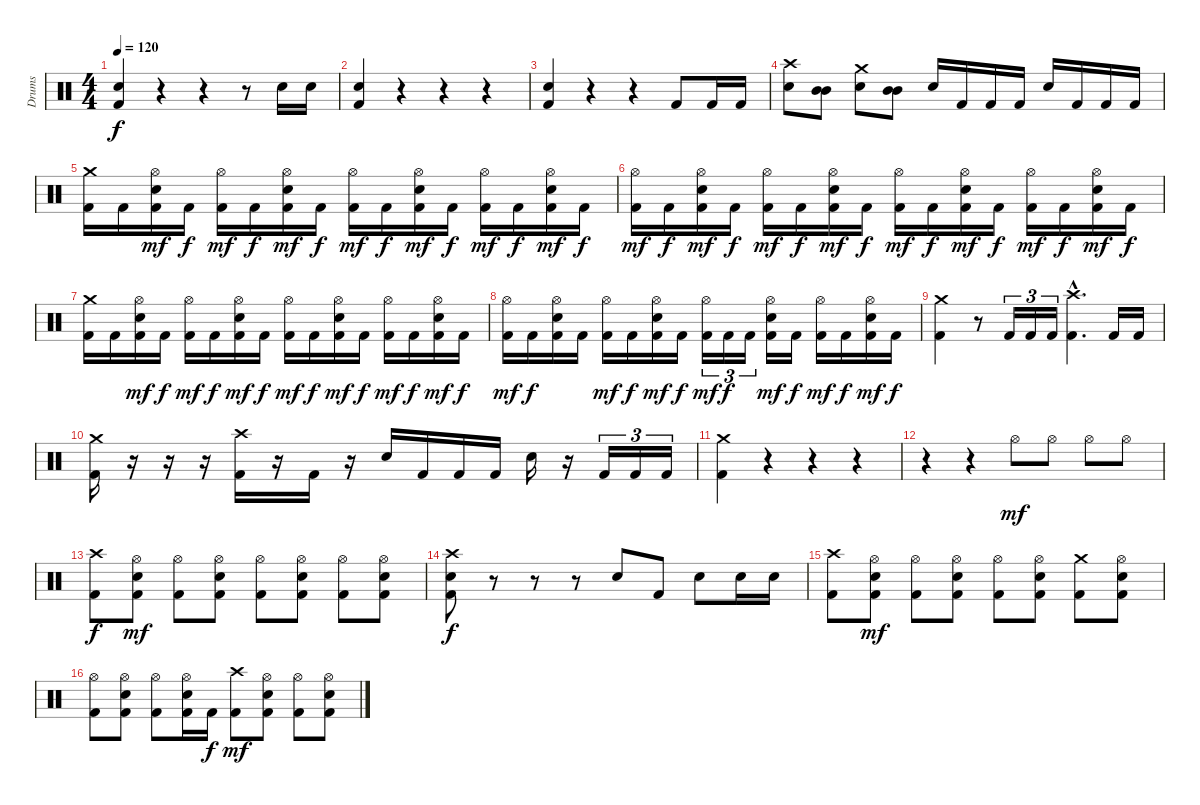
\track ("Drums" "Drums") {instrument percussion}
\staff {score}
\articulation defaults
\ts (4 4)
\tempo 120
\clef neutral
\ks c
("Snare (hit) 2" "Kick (hit) 2").4{dy f} r.4 r.4 r.8 "Snare (hit) 2".16 "Snare (hit) 2".16 |
("Snare (hit) 2" "Kick (hit) 2").4 r.4 r.4 r.4 |
("Snare (hit) 2" "Kick (hit) 2").4 r.4 r.4 "Kick (hit) 2".8 "Kick (hit) 2".16 "Kick (hit) 2".16 |
("Crash high (hit)" "Snare (hit) 2").8 ("Mid Tom (hit)" "Mid Tom (hit)").8 ("Crash medium (hit)" "Snare (hit) 2").8 ("Mid Tom (hit)" "Mid Tom (hit)").8 "Snare (hit) 2".16 "Kick (hit) 2".16 "Kick (hit) 2".16 "Kick (hit) 2".16 "Snare (hit) 2".16 "Kick (hit) 2".16 "Kick (hit) 2".16 "Kick (hit) 2".16 |
("Crash medium (hit)" "Kick (hit) 2").16 "Kick (hit) 2".16 ("Hi-Hat (open)" "Snare (hit) 2" "Kick (hit) 2").16{dy mf} "Kick (hit) 2".16{dy f} ("Hi-Hat (open)" "Kick (hit) 2").16{dy mf} "Kick (hit) 2".16{dy f} ("Hi-Hat (open)" "Snare (hit) 2" "Kick (hit) 2").16{dy mf} "Kick (hit) 2".16{dy f} ("Hi-Hat (open)" "Kick (hit) 2").16{dy mf} "Kick (hit) 2".16{dy f} ("Hi-Hat (open)" "Snare (hit) 2" "Kick (hit) 2").16{dy mf} "Kick (hit) 2".16{dy f} ("Hi-Hat (open)" "Kick (hit) 2").16{dy mf} "Kick (hit) 2".16{dy f} ("Hi-Hat (open)" "Snare (hit) 2" "Kick (hit) 2").16{dy mf} "Kick (hit) 2".16{dy f} |
("Hi-Hat (open)" "Kick (hit) 2").16{dy mf} "Kick (hit) 2".16{dy f} ("Hi-Hat (open)" "Snare (hit) 2" "Kick (hit) 2").16{dy mf} "Kick (hit) 2".16{dy f} ("Hi-Hat (open)" "Kick (hit) 2").16{dy mf} "Kick (hit) 2".16{dy f} ("Hi-Hat (open)" "Snare (hit) 2" "Kick (hit) 2").16{dy mf} "Kick (hit) 2".16{dy f} ("Hi-Hat (open)" "Kick (hit) 2").16{dy mf} "Kick (hit) 2".16{dy f} ("Hi-Hat (open)" "Snare (hit) 2" "Kick (hit) 2").16{dy mf} "Kick (hit) 2".16{dy f} ("Hi-Hat (open)" "Kick (hit) 2").16{dy mf} "Kick (hit) 2".16{dy f} ("Hi-Hat (open)" "Snare (hit) 2" "Kick (hit) 2").16{dy mf} "Kick (hit) 2".16{dy f} |
("Crash medium (hit)" "Kick (hit) 2").16 "Kick (hit) 2".16 ("Hi-Hat (open)" "Snare (hit) 2" "Kick (hit) 2").16{dy mf} "Kick (hit) 2".16{dy f} ("Hi-Hat (open)" "Kick (hit) 2").16{dy mf} "Kick (hit) 2".16{dy f} ("Hi-Hat (open)" "Snare (hit) 2" "Kick (hit) 2").16{dy mf} "Kick (hit) 2".16{dy f} ("Hi-Hat (open)" "Kick (hit) 2").16{dy mf} "Kick (hit) 2".16{dy f} ("Hi-Hat (open)" "Snare (hit) 2" "Kick (hit) 2").16{dy mf} "Kick (hit) 2".16{dy f} ("Hi-Hat (open)" "Kick (hit) 2").16{dy mf} "Kick (hit) 2".16{dy f} ("Hi-Hat (open)" "Snare (hit) 2" "Kick (hit) 2").16{dy mf} "Kick (hit) 2".16{dy f} |
("Hi-Hat (open)" "Kick (hit) 2").16{dy mf} "Kick (hit) 2".16{dy f} ("Hi-Hat (open)" "Snare (hit) 2" "Kick (hit) 2").16 "Kick (hit) 2".16 ("Hi-Hat (open)" "Kick (hit) 2").16{dy mf} "Kick (hit) 2".16{dy f} ("Hi-Hat (open)" "Snare (hit) 2" "Kick (hit) 2").16{dy mf} "Kick (hit) 2".16{dy f} ("Hi-Hat (open)" "Kick (hit) 2").16{tu (3 2) dy mf} "Kick (hit) 2".16{tu (3 2) dy f} "Kick (hit) 2".16{tu (3 2)} ("Hi-Hat (open)" "Snare (hit) 2" "Kick (hit) 2").16{dy mf} "Kick (hit) 2".16{dy f} ("Hi-Hat (open)" "Kick (hit) 2").16{dy mf} "Kick (hit) 2".16{dy f} ("Hi-Hat (open)" "Snare (hit) 2" "Kick (hit) 2").16{dy mf} "Kick (hit) 2".16{dy f} |
("Crash medium (hit)" "Kick (hit) 2").4 r.8 "Kick (hit) 2".16{tu (3 2)} "Kick (hit) 2".16{tu (3 2)} "Kick (hit) 2".16{tu (3 2)} ("Crash high (hit)"{hac} "Kick (hit) 2"{hac}).4{d} "Kick (hit) 2".16 "Kick (hit) 2".16 |
("Crash medium (hit)" "Kick (hit) 2").16 r.16 r.16 r.16 ("Crash high (hit)" "Kick (hit) 2").16 r.16 "Kick (hit) 2".16 r.16 "Snare (hit) 2".16 "Kick (hit) 2".16 "Kick (hit) 2".16 "Kick (hit) 2".16 "Snare (hit) 2".16 r.16 "Kick (hit) 2".16{tu (3 2)} "Kick (hit) 2".16{tu (3 2)} "Kick (hit) 2".16{tu (3 2)} |
("Crash medium (hit)" "Kick (hit) 2").4 r.4 r.4 r.4 |
r.4 r.4 "Hi-Hat (open)".8{dy mf} "Hi-Hat (open)".8 "Hi-Hat (open)".8 "Hi-Hat (open)".8 |
("Crash high (hit)" "Kick (hit) 2").8{dy f} ("Hi-Hat (open)" "Snare (hit) 2" "Kick (hit) 2").8{dy mf} ("Hi-Hat (open)" "Kick (hit) 2").8 ("Hi-Hat (open)" "Snare (hit) 2" "Kick (hit) 2").8 ("Hi-Hat (open)" "Kick (hit) 2").8 ("Hi-Hat (open)" "Snare (hit) 2" "Kick (hit) 2").8 ("Hi-Hat (open)" "Kick (hit) 2").8 ("Hi-Hat (open)" "Snare (hit) 2" "Kick (hit) 2").8 |
("Crash high (hit)" "Snare (hit) 2" "Kick (hit) 2").8{dy f} r.8 r.8 r.8 "Snare (hit) 2".8 "Kick (hit) 2".8 "Snare (hit) 2".8 "Snare (hit) 2".16 "Snare (hit) 2".16 |
("Crash high (hit)" "Kick (hit) 2").8 ("Hi-Hat (open)" "Snare (hit) 2" "Kick (hit) 2").8{dy mf} ("Hi-Hat (open)" "Kick (hit) 2").8 ("Hi-Hat (open)" "Snare (hit) 2" "Kick (hit) 2").8 ("Hi-Hat (open)" "Kick (hit) 2").8 ("Hi-Hat (open)" "Snare (hit) 2" "Kick (hit) 2").8 ("Crash medium (hit)" "Kick (hit) 2").8 ("Hi-Hat (open)" "Snare (hit) 2" "Kick (hit) 2").8 |
("Hi-Hat (open)" "Kick (hit) 2").8 ("Hi-Hat (open)" "Snare (hit) 2" "Kick (hit) 2").8 ("Hi-Hat (open)" "Kick (hit) 2").8 ("Hi-Hat (open)" "Snare (hit) 2" "Kick (hit) 2").16 "Kick (hit) 2".16{dy f} ("Crash high (hit)" "Kick (hit) 2").8{dy mf} ("Hi-Hat (open)" "Snare (hit) 2" "Kick (hit) 2").8 ("Hi-Hat (open)" "Kick (hit) 2").8 ("Hi-Hat (open)" "Snare (hit) 2" "Kick (hit) 2").8
